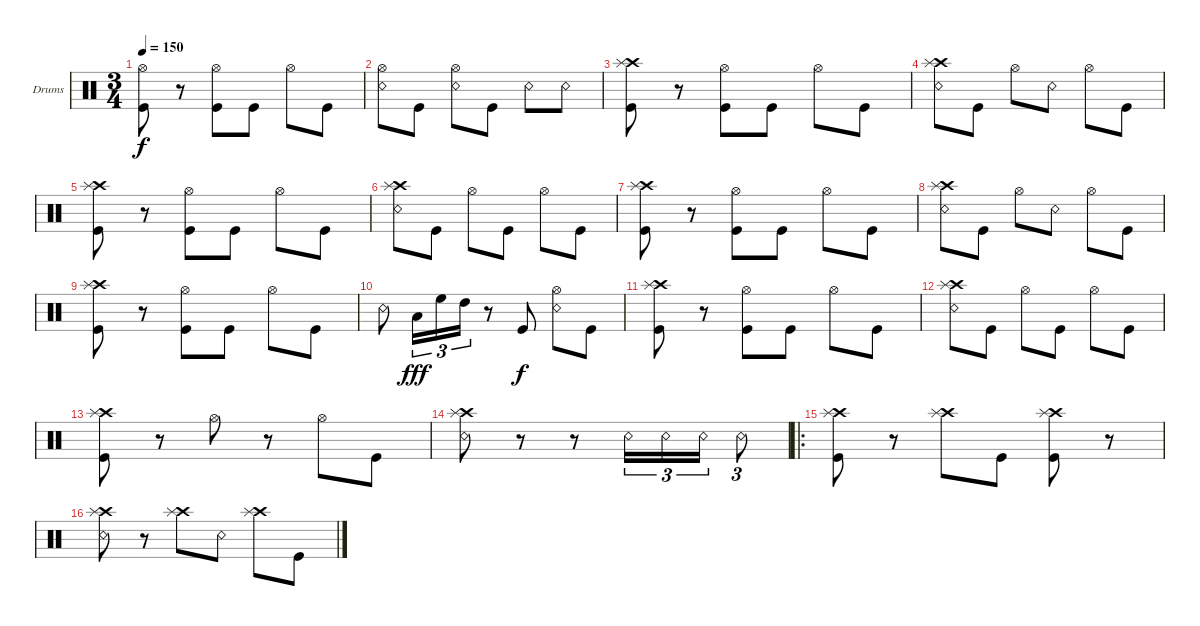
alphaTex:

\defaultSystemsLayout 4
\bracketExtendMode groupsimilarinstruments
\firstSystemTrackNameOrientation horizontal
\otherSystemsTrackNameOrientation horizontal
\track ("Scott" "Drums") {instrument percussion}
\staff {score}
\articulation defaults
\ts (3 4)
\tempo 150
\clef neutral
\scale
0.333333
\ks c
("Kick (hit)" "Hi-Hat (open)").8{dy f} r.8 ("Kick (hit)" "Hi-Hat (open)").8 "Kick (hit)".8 "Hi-Hat (open)".8 "Kick (hit)".8 |
\scale
0.333333 ("Snare (rim shot)" "Hi-Hat (open)").8 "Kick (hit)".8 ("Snare (rim shot)" "Hi-Hat (open)").8 "Kick (hit)".8 "Snare (rim shot)".8 "Snare (rim shot)".8 |
\scale
0.333333 ("Kick (hit)" "Crash high (hit)" "Splash (hit)").8 r.8 ("Kick (hit)" "Hi-Hat (open)").8 "Kick (hit)".8 "Hi-Hat (open)".8 "Kick (hit)".8 |
\scale
0.333333 ("Snare (rim shot)" "Crash high (hit)" "Splash (hit)").8 "Kick (hit)".8 "Hi-Hat (open)".8 "Snare (rim shot)".8 "Hi-Hat (open)".8 "Kick (hit)".8 |
\scale
0.333333 ("Kick (hit)" "Crash high (hit)" "Splash (hit)").8 r.8 ("Kick (hit)" "Hi-Hat (open)").8 "Kick (hit)".8 "Hi-Hat (open)".8 "Kick (hit)".8 |
\scale
0.333333 ("Snare (rim shot)" "Crash high (hit)" "Splash (hit)").8 "Kick (hit)".8 "Hi-Hat (open)".8 "Kick (hit)".8 "Hi-Hat (open)".8 "Kick (hit)".8 |
\scale
0.333333 ("Kick (hit)" "Crash high (hit)" "Splash (hit)").8 r.8 ("Kick (hit)" "Hi-Hat (open)").8 "Kick (hit)".8 "Hi-Hat (open)".8 "Kick (hit)".8 |
\scale
0.333333 ("Snare (rim shot)" "Crash high (hit)" "Splash (hit)").8 "Kick (hit)".8 "Hi-Hat (open)".8 "Snare (rim shot)".8 "Hi-Hat (open)".8 "Kick (hit)".8 |
\scale
0.333333 ("Kick (hit)" "Crash high (hit)" "Splash (hit)").8 r.8 ("Kick (hit)" "Hi-Hat (open)").8 "Kick (hit)".8 "Hi-Hat (open)".8 "Kick (hit)".8 |
\scale
0.333333 "Snare (rim shot)".8 "Low Tom (hit)".16{tu (3 2) dy fff} "High Floor Tom (hit)".16{tu (3 2)} "High Tom (hit)".16{tu (3 2)} r.8 "Kick (hit)".8{dy f} ("Snare (rim shot)" "Hi-Hat (open)").8 "Kick (hit)".8 |
\scale
0.333333 ("Kick (hit)" "Crash high (hit)" "Splash (hit)").8 r.8 ("Kick (hit)" "Hi-Hat (open)").8 "Kick (hit)".8 "Hi-Hat (open)".8 "Kick (hit)".8 |
\scale
0.333333 ("Snare (rim shot)" "Crash high (hit)" "Splash (hit)").8 "Kick (hit)".8 "Hi-Hat (open)".8 "Kick (hit)".8 "Hi-Hat (open)".8 "Kick (hit)".8 |
\scale
0.311475 ("Kick (hit)" "Crash high (hit)" "Splash (hit)").8 r.8 "Hi-Hat (open)".8 r.8 "Hi-Hat (open)".8 "Kick (hit)".8 |
\scale
0.311475 ("Snare (rim shot)" "Crash high (hit)" "Splash (hit)").8 r.8 r.8 "Snare (rim shot)".16{tu (3 2)} "Snare (rim shot)".16{tu (3 2)} "Snare (rim shot)".16{tu (3 2)} "Snare (rim shot)".8{tu (3 2)} |
\ro
\scale
0.377049 ("Kick (hit)" "Crash high (hit)" "Splash (hit)").8 r.8 ("Crash high (hit)" "Splash (hit)").8 "Kick (hit)".8 ("Crash high (hit)" "Splash (hit)" "Kick (hit)").8 r.8 |
\scale
0.333333 ("Snare (rim shot)" "Crash high (hit)" "Splash (hit)").8 r.8 ("Crash high (hit)" "Splash (hit)").8 "Snare (rim shot)".8 ("Crash high (hit)" "Splash (hit)").8 "Kick (hit)".8
